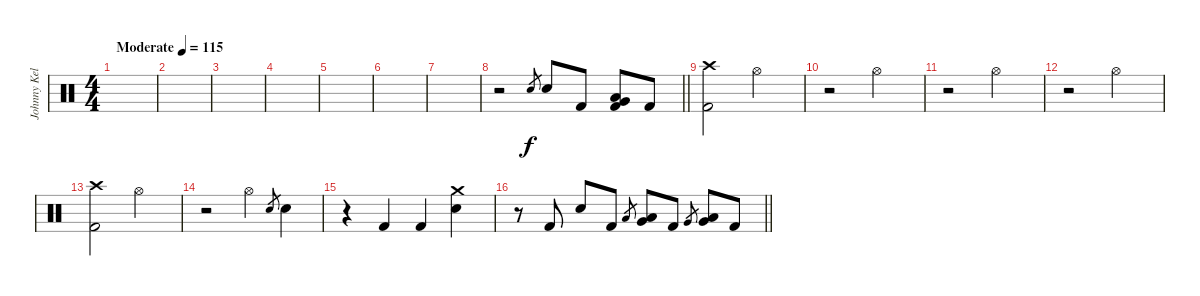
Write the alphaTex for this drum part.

\track ("Johnny Kelly" "Johnny Kel") {instrument percussion}
\staff {score}
\articulation defaults
\ts (4 4)
\tempo (115 "Moderate")
\clef neutral
\ks c
|
|
|
|
|
|
|
\barLineRight lightlight
r.2 "Electric Snare (hit)".8{gr} "Electric Snare (hit)".8 "Kick (hit) 2".8 ("Very Low Tom (hit)" "Low Floor Tom (hit)" "Kick (hit) 2").8 "Kick (hit) 2".8 |
\section ("" "")
("Crash high (hit)" "Kick (hit) 2").2 "Hi-Hat (open)".2 |
r.2 "Hi-Hat (open)".2 |
r.2 "Hi-Hat (open)".2 |
r.2 "Hi-Hat (open)".2 |
("Crash high (hit)" "Kick (hit) 2").2 "Hi-Hat (open)".2 |
r.2 "Hi-Hat (open)".4 "Electric Snare (hit)".8{gr} "Electric Snare (hit)".4 |
r.4 "Kick (hit) 2".4 "Kick (hit) 2".4 ("Crash medium (hit)" "Electric Snare (hit)").4 |
\barLineRight lightlight
r.8 "Kick (hit) 2".8 "Electric Snare (hit)".8 "Kick (hit) 2".8 "Low Tom (hit)".8{gr} ("Low Tom (hit)" "Very Low Tom (hit)").8 "Kick (hit) 2".8 "Very Low Tom (hit)".8{gr} ("Very Low Tom (hit)" "Low Floor Tom (hit)").8 "Kick (hit) 2".8
